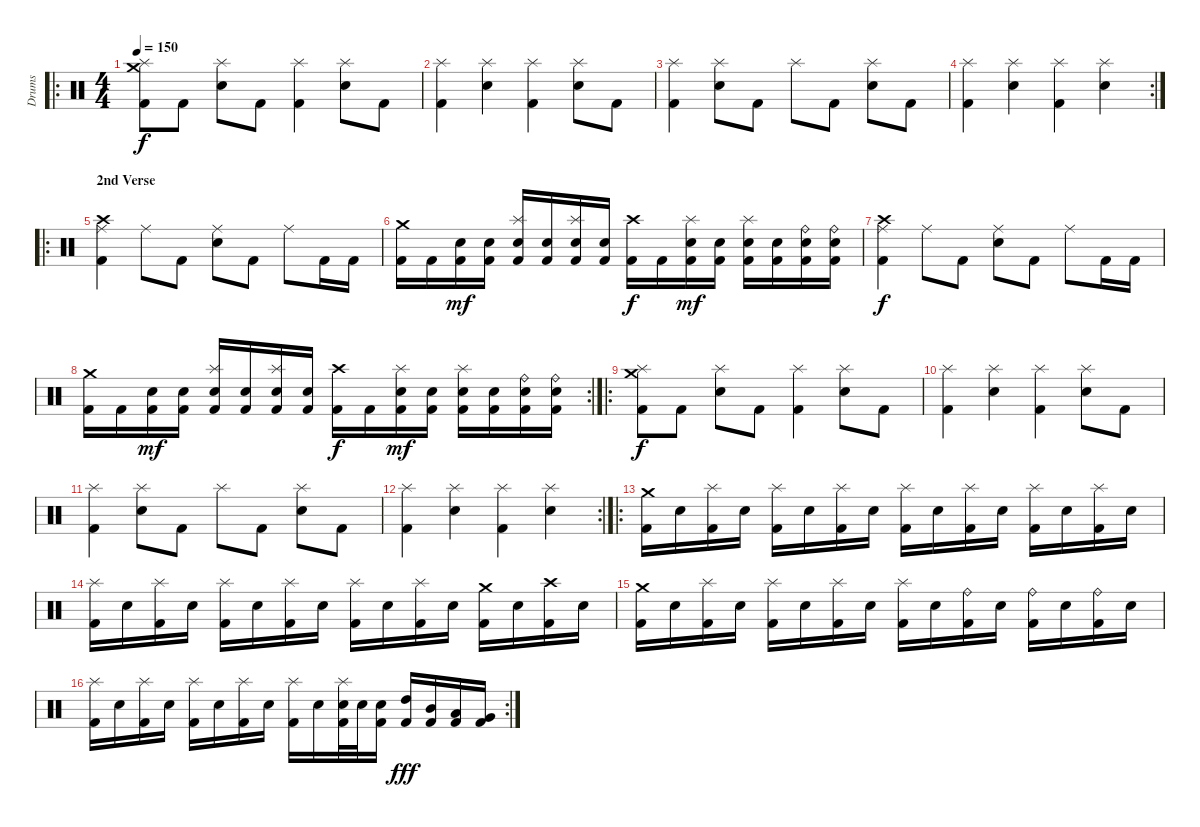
\track ("Drums" "Drums") {instrument percussion}
\staff {score}
\articulation defaults
\ro
\ts (4 4)
\tempo 150
\clef neutral
\ks c
("Kick (hit) 2" "Splash (hit)" "Crash medium (hit)").8{dy f} "Kick (hit) 2".8 ("Electric Snare (hit)" "Splash (hit)").8 "Kick (hit) 2".8 ("Kick (hit) 2" "Splash (hit)").4 ("Electric Snare (hit)" "Splash (hit)").8 "Kick (hit) 2".8 |
("Kick (hit) 2" "Splash (hit)").4 ("Electric Snare (hit)" "Splash (hit)").4 ("Kick (hit) 2" "Splash (hit)").4 ("Electric Snare (hit)" "Splash (hit)").8 "Kick (hit) 2".8 |
("Kick (hit) 2" "Splash (hit)").4 ("Electric Snare (hit)" "Splash (hit)").8 "Kick (hit) 2".8 "Splash (hit)".8 "Kick (hit) 2".8 ("Electric Snare (hit)" "Splash (hit)").8 "Kick (hit) 2".8 |
\rc 2
("Kick (hit) 2" "Splash (hit)").4 ("Electric Snare (hit)" "Splash (hit)").4 ("Kick (hit) 2" "Splash (hit)").4 ("Electric Snare (hit)" "Splash (hit)").4 |
\ro
\section ("" "2nd Verse")
("Kick (hit) 2" "Ride (middle)" "Crash high (hit)").4 "Ride (middle)".8 "Kick (hit) 2".8 ("Electric Snare (hit)" "Ride (middle)").8 "Kick (hit) 2".8 "Ride (middle)".8 "Kick (hit) 2".16 "Kick (hit) 2".16 |
("Kick (hit) 2" "Crash medium (hit)").16 "Kick (hit) 2".16 ("Kick (hit) 2" "Electric Snare (hit)").16{dy mf} ("Kick (hit) 2" "Electric Snare (hit)").16 ("Kick (hit) 2" "Electric Snare (hit)" "Splash (hit)").16 ("Kick (hit) 2" "Electric Snare (hit)").16 ("Kick (hit) 2" "Electric Snare (hit)" "Splash (hit)").16 ("Kick (hit) 2" "Electric Snare (hit)").16 ("Kick (hit) 2" "Crash high (hit)").16{dy f} "Kick (hit) 2".16 ("Kick (hit) 2" "Electric Snare (hit)" "Splash (hit)").16{dy mf} ("Kick (hit) 2" "Electric Snare (hit)").16 ("Kick (hit) 2" "Electric Snare (hit)" "Splash (hit)").16 ("Kick (hit) 2" "Electric Snare (hit)").16 ("Kick (hit) 2" "Electric Snare (hit)" "Ride (bell)").16 ("Kick (hit) 2" "Electric Snare (hit)" "Ride (bell)").16 |
("Kick (hit) 2" "Ride (middle)" "Crash high (hit)").4{dy f} "Ride (middle)".8 "Kick (hit) 2".8 ("Electric Snare (hit)" "Ride (middle)").8 "Kick (hit) 2".8 "Ride (middle)".8 "Kick (hit) 2".16 "Kick (hit) 2".16 |
\rc 2
("Kick (hit) 2" "Crash medium (hit)").16 "Kick (hit) 2".16 ("Kick (hit) 2" "Electric Snare (hit)").16{dy mf} ("Kick (hit) 2" "Electric Snare (hit)").16 ("Kick (hit) 2" "Electric Snare (hit)" "Splash (hit)").16 ("Kick (hit) 2" "Electric Snare (hit)").16 ("Kick (hit) 2" "Electric Snare (hit)" "Splash (hit)").16 ("Kick (hit) 2" "Electric Snare (hit)").16 ("Kick (hit) 2" "Crash high (hit)").16{dy f} "Kick (hit) 2".16 ("Kick (hit) 2" "Electric Snare (hit)" "Splash (hit)").16{dy mf} ("Kick (hit) 2" "Electric Snare (hit)").16 ("Kick (hit) 2" "Electric Snare (hit)" "Splash (hit)").16 ("Kick (hit) 2" "Electric Snare (hit)").16 ("Kick (hit) 2" "Electric Snare (hit)" "Ride (bell)").16 ("Kick (hit) 2" "Electric Snare (hit)" "Ride (bell)").16 |
\ro
("Kick (hit) 2" "Splash (hit)" "Crash medium (hit)").8{dy f} "Kick (hit) 2".8 ("Electric Snare (hit)" "Splash (hit)").8 "Kick (hit) 2".8 ("Kick (hit) 2" "Splash (hit)").4 ("Electric Snare (hit)" "Splash (hit)").8 "Kick (hit) 2".8 |
("Kick (hit) 2" "Splash (hit)").4 ("Electric Snare (hit)" "Splash (hit)").4 ("Kick (hit) 2" "Splash (hit)").4 ("Electric Snare (hit)" "Splash (hit)").8 "Kick (hit) 2".8 |
("Kick (hit) 2" "Splash (hit)").4 ("Electric Snare (hit)" "Splash (hit)").8 "Kick (hit) 2".8 "Splash (hit)".8 "Kick (hit) 2".8 ("Electric Snare (hit)" "Splash (hit)").8 "Kick (hit) 2".8 |
\rc 2
("Kick (hit) 2" "Splash (hit)").4 ("Electric Snare (hit)" "Splash (hit)").4 ("Kick (hit) 2" "Splash (hit)").4 ("Electric Snare (hit)" "Splash (hit)").4 |
\ro
("Kick (hit) 2" "Crash medium (hit)").16 "Electric Snare (hit)".16 ("Kick (hit) 2" "Splash (hit)").16 "Electric Snare (hit)".16 ("Kick (hit) 2" "Splash (hit)").16 "Electric Snare (hit)".16 ("Kick (hit) 2" "Splash (hit)").16 "Electric Snare (hit)".16 ("Kick (hit) 2" "Splash (hit)").16 "Electric Snare (hit)".16 ("Kick (hit) 2" "Splash (hit)").16 "Electric Snare (hit)".16 ("Kick (hit) 2" "Splash (hit)").16 "Electric Snare (hit)".16 ("Kick (hit) 2" "Splash (hit)").16 "Electric Snare (hit)".16 |
("Kick (hit) 2" "Splash (hit)").16 "Electric Snare (hit)".16 ("Kick (hit) 2" "Splash (hit)").16 "Electric Snare (hit)".16 ("Kick (hit) 2" "Splash (hit)").16 "Electric Snare (hit)".16 ("Kick (hit) 2" "Splash (hit)").16 "Electric Snare (hit)".16 ("Kick (hit) 2" "Splash (hit)").16 "Electric Snare (hit)".16 ("Kick (hit) 2" "Splash (hit)").16 "Electric Snare (hit)".16 ("Kick (hit) 2" "Crash medium (hit)").16 "Electric Snare (hit)".16 ("Kick (hit) 2" "Crash high (hit)").16 "Electric Snare (hit)".16 |
("Kick (hit) 2" "Crash medium (hit)").16 "Electric Snare (hit)".16 ("Kick (hit) 2" "Splash (hit)").16 "Electric Snare (hit)".16 ("Kick (hit) 2" "Splash (hit)").16 "Electric Snare (hit)".16 ("Kick (hit) 2" "Splash (hit)").16 "Electric Snare (hit)".16 ("Kick (hit) 2" "Splash (hit)").16 "Electric Snare (hit)".16 ("Kick (hit) 2" "Ride (bell)").16 "Electric Snare (hit)".16 ("Kick (hit) 2" "Ride (bell)").16 "Electric Snare (hit)".16 ("Kick (hit) 2" "Ride (bell)").16 "Electric Snare (hit)".16 |
\rc 2
("Kick (hit) 2" "Splash (hit)").16 "Electric Snare (hit)".16 ("Kick (hit) 2" "Splash (hit)").16 "Electric Snare (hit)".16 ("Kick (hit) 2" "Splash (hit)").16 "Electric Snare (hit)".16 ("Kick (hit) 2" "Splash (hit)").16 "Electric Snare (hit)".16 ("Kick (hit) 2" "Splash (hit)").16 "Electric Snare (hit)".16 ("Kick (hit) 2" "Electric Snare (hit)" "Splash (hit)").32 "Electric Snare (hit)".32 ("Kick (hit) 2" "Electric Snare (hit)").16 ("Kick (hit) 2" "High Tom (hit)").16{dy fff} ("Kick (hit) 2" "Mid Tom (hit)").16 ("Kick (hit) 2" "Low Tom (hit)").16 ("Kick (hit) 2" "Very Low Tom (hit)").16
